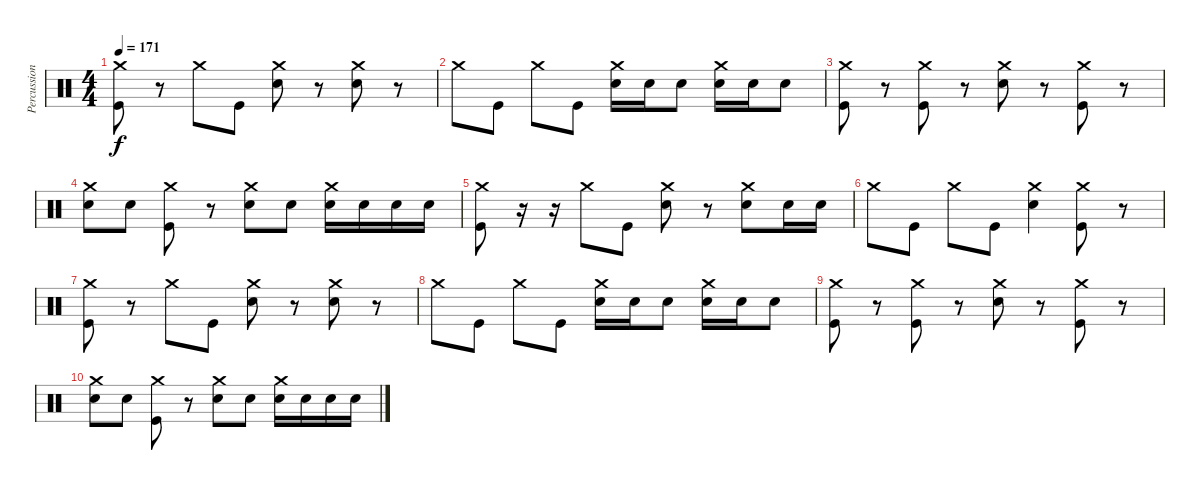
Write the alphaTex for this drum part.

\track ("Percussion" "Percussion") {instrument percussion}
\staff {score}
\articulation defaults
\ts (4 4)
\tempo 171
\clef neutral
\ks c
("Crash medium (hit)" "Kick (hit)").8{dy f} r.8 "Crash medium (hit)".8 "Kick (hit)".8 ("Crash medium (hit)" "Electric Snare (hit)").8 r.8 ("Crash medium (hit)" "Electric Snare (hit)").8 r.8 |
"Crash medium (hit)".8 "Kick (hit)".8 "Crash medium (hit)".8 "Kick (hit)".8 ("Crash medium (hit)" "Electric Snare (hit)").16 "Electric Snare (hit)".16 "Electric Snare (hit)".8 ("Crash medium (hit)" "Electric Snare (hit)").16 "Electric Snare (hit)".16 "Electric Snare (hit)".8 |
("Crash medium (hit)" "Kick (hit)").8 r.8 ("Crash medium (hit)" "Kick (hit)").8 r.8 ("Crash medium (hit)" "Electric Snare (hit)").8 r.8 ("Crash medium (hit)" "Kick (hit)").8 r.8 |
("Crash medium (hit)" "Electric Snare (hit)").8 "Electric Snare (hit)".8 ("Crash medium (hit)" "Kick (hit)").8 r.8 ("Crash medium (hit)" "Electric Snare (hit)").8 "Electric Snare (hit)".8 ("Crash medium (hit)" "Electric Snare (hit)").16 "Electric Snare (hit)".16 "Electric Snare (hit)".16 "Electric Snare (hit)".16 |
("Crash medium (hit)" "Kick (hit)").8 r.16 r.16 "Crash medium (hit)".8 "Kick (hit)".8 ("Crash medium (hit)" "Electric Snare (hit)").8 r.8 ("Crash medium (hit)" "Electric Snare (hit)").8 "Electric Snare (hit)".16 "Electric Snare (hit)".16 |
"Crash medium (hit)".8 "Kick (hit)".8 "Crash medium (hit)".8 "Kick (hit)".8 ("Crash medium (hit)" "Electric Snare (hit)").4 ("Crash medium (hit)" "Kick (hit)").8 r.8 |
("Crash medium (hit)" "Kick (hit)").8 r.8 "Crash medium (hit)".8 "Kick (hit)".8 ("Crash medium (hit)" "Electric Snare (hit)").8 r.8 ("Crash medium (hit)" "Electric Snare (hit)").8 r.8 |
"Crash medium (hit)".8 "Kick (hit)".8 "Crash medium (hit)".8 "Kick (hit)".8 ("Crash medium (hit)" "Electric Snare (hit)").16 "Electric Snare (hit)".16 "Electric Snare (hit)".8 ("Crash medium (hit)" "Electric Snare (hit)").16 "Electric Snare (hit)".16 "Electric Snare (hit)".8 |
("Crash medium (hit)" "Kick (hit)").8 r.8 ("Crash medium (hit)" "Kick (hit)").8 r.8 ("Crash medium (hit)" "Electric Snare (hit)").8 r.8 ("Crash medium (hit)" "Kick (hit)").8 r.8 |
("Crash medium (hit)" "Electric Snare (hit)").8 "Electric Snare (hit)".8 ("Crash medium (hit)" "Kick (hit)").8 r.8 ("Crash medium (hit)" "Electric Snare (hit)").8 "Electric Snare (hit)".8 ("Crash medium (hit)" "Electric Snare (hit)").16 "Electric Snare (hit)".16 "Electric Snare (hit)".16 "Electric Snare (hit)".16
